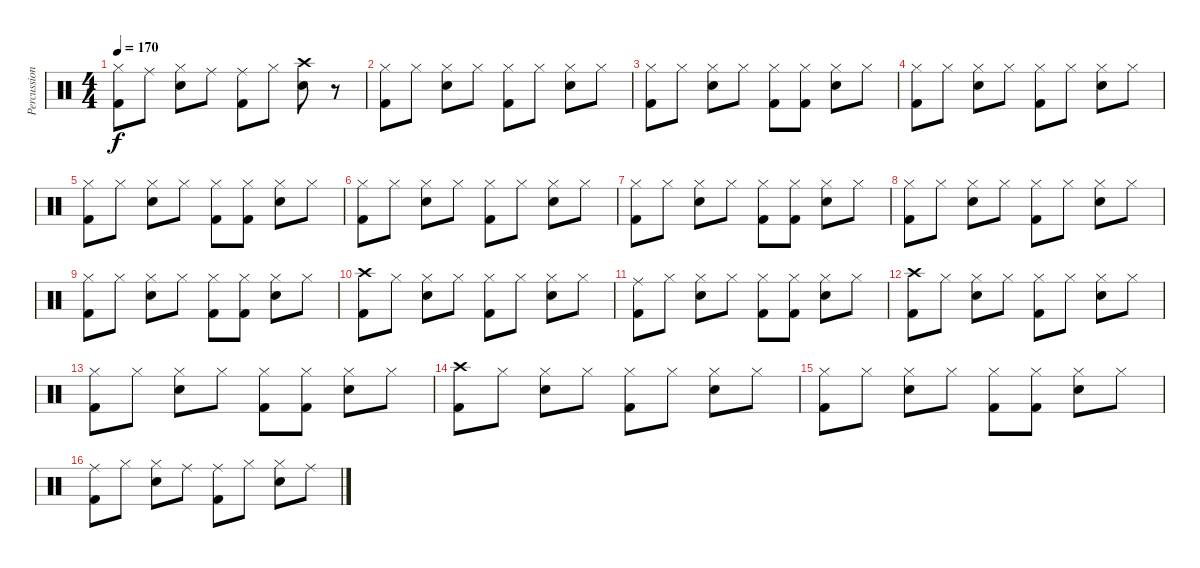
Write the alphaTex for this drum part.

\track ("Percussion" "Percussion") {instrument percussion}
\staff {score}
\articulation defaults
\ts (4 4)
\tempo 170
\clef neutral
\ks c
("Hi-Hat (closed)" "Kick (hit) 2").8{dy f} "Ride (middle)".8 ("Hi-Hat (closed)" "Snare (hit) 2").8 "Ride (middle)".8 ("Ride (middle)" "Kick (hit) 2").8 "Hi-Hat (closed)".8 ("Crash high (hit)" "Snare (hit) 2").8 r.8 |
("Hi-Hat (closed)" "Kick (hit) 2").8 "Hi-Hat (closed)".8 ("Hi-Hat (closed)" "Snare (hit) 2").8 "Hi-Hat (closed)".8 ("Hi-Hat (closed)" "Kick (hit) 2").8 "Hi-Hat (closed)".8 ("Hi-Hat (closed)" "Snare (hit) 2").8 "Hi-Hat (closed)".8 |
("Hi-Hat (closed)" "Kick (hit) 2").8 "Hi-Hat (closed)".8 ("Hi-Hat (closed)" "Snare (hit) 2").8 "Hi-Hat (closed)".8 ("Hi-Hat (closed)" "Kick (hit) 2").8 ("Hi-Hat (closed)" "Kick (hit) 2").8 ("Hi-Hat (closed)" "Snare (hit) 2").8 "Hi-Hat (closed)".8 |
("Hi-Hat (closed)" "Kick (hit) 2").8 "Hi-Hat (closed)".8 ("Hi-Hat (closed)" "Snare (hit) 2").8 "Hi-Hat (closed)".8 ("Hi-Hat (closed)" "Kick (hit) 2").8 "Hi-Hat (closed)".8 ("Hi-Hat (closed)" "Snare (hit) 2").8 "Hi-Hat (closed)".8 |
("Hi-Hat (closed)" "Kick (hit) 2").8 "Hi-Hat (closed)".8 ("Hi-Hat (closed)" "Snare (hit) 2").8 "Hi-Hat (closed)".8 ("Hi-Hat (closed)" "Kick (hit) 2").8 ("Hi-Hat (closed)" "Kick (hit) 2").8 ("Hi-Hat (closed)" "Snare (hit) 2").8 "Hi-Hat (closed)".8 |
("Hi-Hat (closed)" "Kick (hit) 2").8 "Hi-Hat (closed)".8 ("Hi-Hat (closed)" "Snare (hit) 2").8 "Hi-Hat (closed)".8 ("Hi-Hat (closed)" "Kick (hit) 2").8 "Hi-Hat (closed)".8 ("Hi-Hat (closed)" "Snare (hit) 2").8 "Hi-Hat (closed)".8 |
("Hi-Hat (closed)" "Kick (hit) 2").8 "Hi-Hat (closed)".8 ("Hi-Hat (closed)" "Snare (hit) 2").8 "Hi-Hat (closed)".8 ("Hi-Hat (closed)" "Kick (hit) 2").8 ("Hi-Hat (closed)" "Kick (hit) 2").8 ("Hi-Hat (closed)" "Snare (hit) 2").8 "Hi-Hat (closed)".8 |
("Hi-Hat (closed)" "Kick (hit) 2").8 "Hi-Hat (closed)".8 ("Hi-Hat (closed)" "Snare (hit) 2").8 "Hi-Hat (closed)".8 ("Hi-Hat (closed)" "Kick (hit) 2").8 "Hi-Hat (closed)".8 ("Hi-Hat (closed)" "Snare (hit) 2").8 "Hi-Hat (closed)".8 |
("Hi-Hat (closed)" "Kick (hit) 2").8 "Hi-Hat (closed)".8 ("Hi-Hat (closed)" "Snare (hit) 2").8 "Hi-Hat (closed)".8 ("Hi-Hat (closed)" "Kick (hit) 2").8 ("Hi-Hat (closed)" "Kick (hit) 2").8 ("Hi-Hat (closed)" "Snare (hit) 2").8 "Hi-Hat (closed)".8 |
("Crash high (hit)" "Kick (hit) 2").8 "Hi-Hat (closed)".8 ("Hi-Hat (closed)" "Snare (hit) 2").8 "Hi-Hat (closed)".8 ("Hi-Hat (closed)" "Kick (hit) 2").8 "Hi-Hat (closed)".8 ("Hi-Hat (closed)" "Snare (hit) 2").8 "Hi-Hat (closed)".8 |
("Ride (middle)" "Kick (hit) 2").8 "Hi-Hat (closed)".8 ("Hi-Hat (closed)" "Snare (hit) 2").8 "Hi-Hat (closed)".8 ("Hi-Hat (closed)" "Kick (hit) 2").8 ("Hi-Hat (closed)" "Kick (hit) 2").8 ("Hi-Hat (closed)" "Snare (hit) 2").8 "Hi-Hat (closed)".8 |
("Crash high (hit)" "Kick (hit) 2").8 "Hi-Hat (closed)".8 ("Hi-Hat (closed)" "Snare (hit) 2").8 "Hi-Hat (closed)".8 ("Hi-Hat (closed)" "Kick (hit) 2").8 "Hi-Hat (closed)".8 ("Hi-Hat (closed)" "Snare (hit) 2").8 "Hi-Hat (closed)".8 |
("Hi-Hat (closed)" "Kick (hit) 2").8 "Hi-Hat (closed)".8 ("Hi-Hat (closed)" "Snare (hit) 2").8 "Hi-Hat (closed)".8 ("Hi-Hat (closed)" "Kick (hit) 2").8 ("Hi-Hat (closed)" "Kick (hit) 2").8 ("Hi-Hat (closed)" "Snare (hit) 2").8 "Hi-Hat (closed)".8 |
("Crash high (hit)" "Kick (hit) 2").8 "Hi-Hat (closed)".8 ("Hi-Hat (closed)" "Snare (hit) 2").8 "Hi-Hat (closed)".8 ("Hi-Hat (closed)" "Kick (hit) 2").8 "Hi-Hat (closed)".8 ("Hi-Hat (closed)" "Snare (hit) 2").8 "Hi-Hat (closed)".8 |
("Hi-Hat (closed)" "Kick (hit) 2").8 "Hi-Hat (closed)".8 ("Hi-Hat (closed)" "Snare (hit) 2").8 "Hi-Hat (closed)".8 ("Hi-Hat (closed)" "Kick (hit) 2").8 ("Hi-Hat (closed)" "Kick (hit) 2").8 ("Hi-Hat (closed)" "Snare (hit) 2").8 "Hi-Hat (closed)".8 |
("Ride (middle)" "Kick (hit) 2").8 "Hi-Hat (closed)".8 ("Hi-Hat (closed)" "Snare (hit) 2").8 "Ride (middle)".8 ("Ride (middle)" "Kick (hit) 2").8 "Hi-Hat (closed)".8 ("Hi-Hat (closed)" "Snare (hit) 2").8 "Ride (middle)".8
